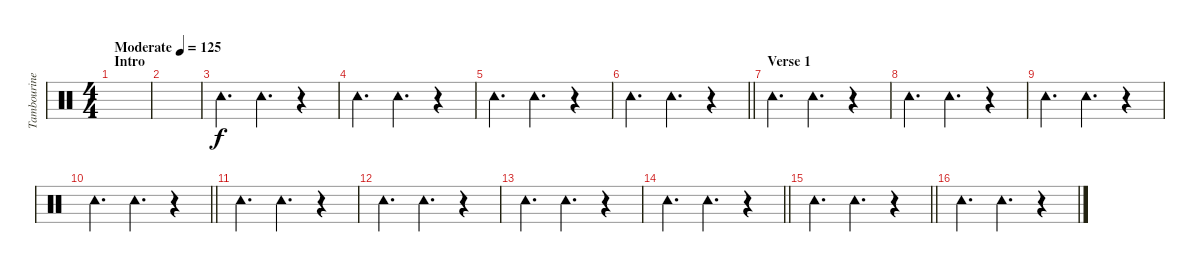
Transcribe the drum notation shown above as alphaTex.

\track ("Tambourine" "Tambourine") {instrument percussion}
\staff {score}
\articulation defaults
\ts (4 4)
\section ("" "Intro")
\tempo (125 "Moderate")
\clef neutral
\ks c
|
|
"Tambourine (hit)".4{d} "Tambourine (hit)".4{d} r.4 |
"Tambourine (hit)".4{d} "Tambourine (hit)".4{d} r.4 |
"Tambourine (hit)".4{d} "Tambourine (hit)".4{d} r.4 |
\barLineRight lightlight "Tambourine (hit)".4{d} "Tambourine (hit)".4{d}
r.4 |
\section ("" "Verse 1")
"Tambourine (hit)".4{d} "Tambourine (hit)".4{d} r.4 |
"Tambourine (hit)".4{d} "Tambourine (hit)".4{d} r.4 |
"Tambourine (hit)".4{d} "Tambourine (hit)".4{d} r.4 |
\barLineRight lightlight "Tambourine (hit)".4{d} "Tambourine (hit)".4{d}
r.4 |
"Tambourine (hit)".4{d} "Tambourine (hit)".4{d} r.4 |
"Tambourine (hit)".4{d} "Tambourine (hit)".4{d} r.4 |
"Tambourine (hit)".4{d} "Tambourine (hit)".4{d} r.4 |
\barLineRight lightlight "Tambourine (hit)".4{d} "Tambourine (hit)".4{d}
r.4 |
\section ("" "")
\barLineRight lightlight "Tambourine (hit)".4{d} "Tambourine (hit)".4{d}
r.4 |
\section ("" "")
"Tambourine (hit)".4{d} "Tambourine (hit)".4{d} r.4
